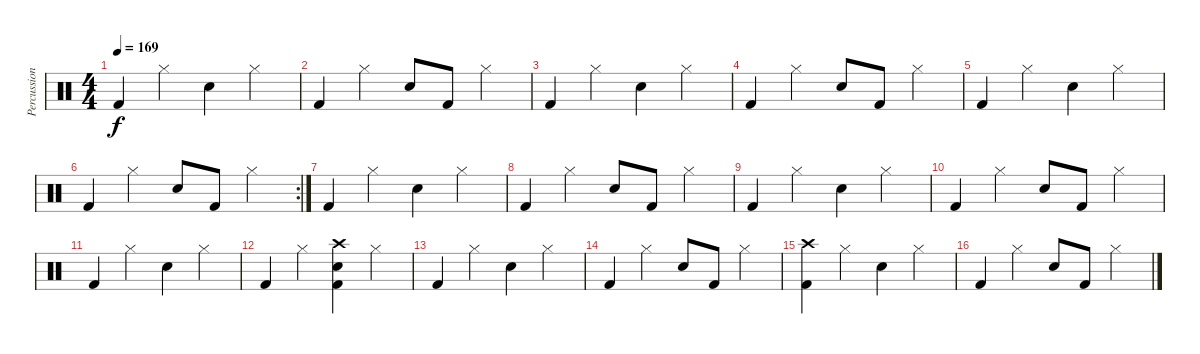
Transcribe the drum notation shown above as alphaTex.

\track ("Percussion" "Percussion") {instrument percussion}
\staff {score}
\articulation defaults
\ts (4 4)
\tempo 169
\clef neutral
\ks c "Kick (hit) 2".4{dy f} "Hi-Hat (closed)".4 "Snare (hit) 2".4 "Hi-Hat (closed)".4
|
"Kick (hit) 2".4 "Hi-Hat (closed)".4 "Snare (hit) 2".8 "Kick (hit) 2".8 "Hi-Hat (closed)".4 |
"Kick (hit) 2".4 "Hi-Hat (closed)".4 "Snare (hit) 2".4 "Hi-Hat (closed)".4 |
"Kick (hit) 2".4 "Hi-Hat (closed)".4 "Snare (hit) 2".8 "Kick (hit) 2".8 "Hi-Hat (closed)".4 |
"Kick (hit) 2".4 "Hi-Hat (closed)".4 "Snare (hit) 2".4 "Hi-Hat (closed)".4 |
\rc 2 "Kick (hit) 2".4 "Hi-Hat (closed)".4 "Snare (hit) 2".8 "Kick (hit) 2".8 "Hi-Hat (closed)".4
|
"Kick (hit) 2".4 "Hi-Hat (closed)".4 "Snare (hit) 2".4 "Hi-Hat (closed)".4 |
"Kick (hit) 2".4 "Hi-Hat (closed)".4 "Snare (hit) 2".8 "Kick (hit) 2".8 "Hi-Hat (closed)".4 |
"Kick (hit) 2".4 "Hi-Hat (closed)".4 "Snare (hit) 2".4 "Hi-Hat (closed)".4 |
"Kick (hit) 2".4 "Hi-Hat (closed)".4 "Snare (hit) 2".8 "Kick (hit) 2".8 "Hi-Hat (closed)".4 |
"Kick (hit) 2".4 "Hi-Hat (closed)".4 "Snare (hit) 2".4 "Hi-Hat (closed)".4 |
"Kick (hit) 2".4 "Hi-Hat (closed)".4 ("Snare (hit) 2" "Crash high (hit)" "Kick (hit) 2").4 "Hi-Hat (closed)".4 |
"Kick (hit) 2".4 "Hi-Hat (closed)".4 "Snare (hit) 2".4 "Hi-Hat (closed)".4 |
"Kick (hit) 2".4 "Hi-Hat (closed)".4 "Snare (hit) 2".8 "Kick (hit) 2".8 "Hi-Hat (closed)".4 |
("Crash high (hit)" "Kick (hit) 2").4 "Hi-Hat (closed)".4 "Snare (hit) 2".4 "Hi-Hat (closed)".4 |
"Kick (hit) 2".4 "Hi-Hat (closed)".4 "Snare (hit) 2".8 "Kick (hit) 2".8 "Hi-Hat (closed)".4
